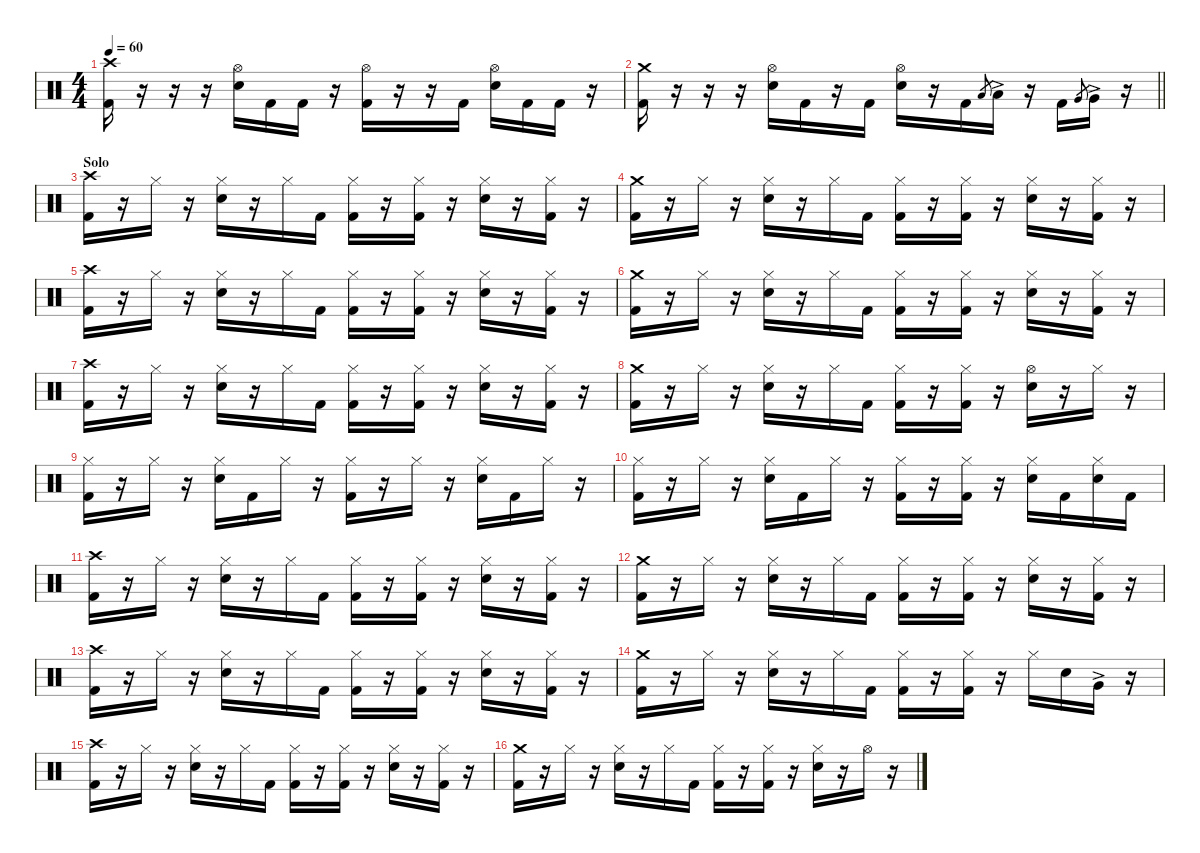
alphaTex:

\defaultSystemsLayout 4
\hideDynamics
\bracketExtendMode nobrackets
\singleTrackTrackNamePolicy hidden
\multiTrackTrackNamePolicy hidden
\firstSystemTrackNameMode fullname
\firstSystemTrackNameOrientation horizontal
\otherSystemsTrackNameOrientation horizontal
\track ("Gene Hoglan" "drm.") {instrument percussion}
\staff {score}
\articulation defaults
\ts (4 4)
\tempo 60
\clef neutral
\ks c
("Crash high (hit)" "Kick (hit) 2").16{dy f beam Down} r.16{beam Down} r.16{beam Down} r.16{beam Down} ("Hi-Hat (open)" "Snare (hit) 2").16{beam Down} "Kick (hit) 2".16{beam Down} "Kick (hit) 2".16{beam Down} r.16{beam Down} ("Hi-Hat (open)" "Kick (hit) 2").16{beam Down} r.16{beam Down} r.16{beam Down} "Kick (hit) 2".16{beam Down} ("Hi-Hat (open)" "Snare (hit) 2").16{beam Down} "Kick (hit) 2".16{beam Down} "Kick (hit) 2".16{beam Down} r.16{beam Down} |
\barLineRight lightlight
("Crash medium (hit)" "Kick (hit) 2").16{beam Down} r.16{beam Down} r.16{beam Down} r.16{beam Down} ("Hi-Hat (open)" "Snare (hit) 2").16{beam Down} "Kick (hit) 2".16{beam Down} r.16{beam Down} "Kick (hit) 2".16{beam Down} ("Hi-Hat (open)" "Snare (hit) 2").16{beam Down} r.16{beam Down} "Kick (hit) 2".16{beam Down} "Low Tom (hit)".8{gr beam Up} "Low Tom (hit)"{ac}.16{dy mf beam Down} r.16{beam Down} "Kick (hit) 2".16{dy f beam Up} "Very Low Tom (hit)".8{gr beam Up} "Very Low Tom (hit)"{ac}.16{dy mf beam Up} r.16{beam Up} |
\section ("" "Solo")
("Crash high (hit)" "Kick (hit) 2").16{dy f beam Down} r.16{beam Down} "Hi-Hat (closed)".16{beam Down} r.16{beam Down} ("Hi-Hat (closed)" "Snare (hit) 2").16{beam Down} r.16{beam Down} "Hi-Hat (closed)".16{beam Down} "Kick (hit) 2".16{beam Down} ("Hi-Hat (closed)" "Kick (hit) 2").16{beam Down} r.16{beam Down} ("Hi-Hat (closed)" "Kick (hit) 2").16{beam Down} r.16{beam Down} ("Hi-Hat (closed)" "Snare (hit) 2").16{beam Down} r.16{beam Down} ("Hi-Hat (closed)" "Kick (hit) 2").16{beam Down} r.16{beam Down} |
("Crash medium (hit)" "Kick (hit) 2").16{beam Down} r.16{beam Down} "Hi-Hat (closed)".16{beam Down} r.16{beam Down} ("Hi-Hat (closed)" "Snare (hit) 2").16{beam Down} r.16{beam Down} "Hi-Hat (closed)".16{beam Down} "Kick (hit) 2".16{beam Down} ("Hi-Hat (closed)" "Kick (hit) 2").16{beam Down} r.16{beam Down} ("Hi-Hat (closed)" "Kick (hit) 2").16{beam Down} r.16{beam Down} ("Hi-Hat (closed)" "Snare (hit) 2").16{beam Down} r.16{beam Down} ("Hi-Hat (closed)" "Kick (hit) 2").16{beam Down} r.16{beam Down} |
("Crash high (hit)" "Kick (hit) 2").16{beam Down} r.16{beam Down} "Hi-Hat (closed)".16{beam Down} r.16{beam Down} ("Hi-Hat (closed)" "Snare (hit) 2").16{beam Down} r.16{beam Down} "Hi-Hat (closed)".16{beam Down} "Kick (hit) 2".16{beam Down} ("Hi-Hat (closed)" "Kick (hit) 2").16{beam Down} r.16{beam Down} ("Hi-Hat (closed)" "Kick (hit) 2").16{beam Down} r.16{beam Down} ("Hi-Hat (closed)" "Snare (hit) 2").16{beam Down} r.16{beam Down} ("Hi-Hat (closed)" "Kick (hit) 2").16{beam Down} r.16{beam Down} |
("Crash medium (hit)" "Kick (hit) 2").16{beam Down} r.16{beam Down} "Hi-Hat (closed)".16{beam Down} r.16{beam Down} ("Hi-Hat (closed)" "Snare (hit) 2").16{beam Down} r.16{beam Down} "Hi-Hat (closed)".16{beam Down} "Kick (hit) 2".16{beam Down} ("Hi-Hat (closed)" "Kick (hit) 2").16{beam Down} r.16{beam Down} ("Hi-Hat (closed)" "Kick (hit) 2").16{beam Down} r.16{beam Down} ("Hi-Hat (closed)" "Snare (hit) 2").16{beam Down} r.16{beam Down} ("Hi-Hat (closed)" "Kick (hit) 2").16{beam Down} r.16{beam Down} |
("Crash high (hit)" "Kick (hit) 2").16{beam Down} r.16{beam Down} "Hi-Hat (closed)".16{beam Down} r.16{beam Down} ("Hi-Hat (closed)" "Snare (hit) 2").16{beam Down} r.16{beam Down} "Hi-Hat (closed)".16{beam Down} "Kick (hit) 2".16{beam Down} ("Hi-Hat (closed)" "Kick (hit) 2").16{beam Down} r.16{beam Down} ("Hi-Hat (closed)" "Kick (hit) 2").16{beam Down} r.16{beam Down} ("Hi-Hat (closed)" "Snare (hit) 2").16{beam Down} r.16{beam Down} ("Hi-Hat (closed)" "Kick (hit) 2").16{beam Down} r.16{beam Down} |
("Crash medium (hit)" "Kick (hit) 2").16{beam Down} r.16{beam Down} "Hi-Hat (closed)".16{beam Down} r.16{beam Down} ("Hi-Hat (closed)" "Snare (hit) 2").16{beam Down} r.16{beam Down} "Hi-Hat (closed)".16{beam Down} "Kick (hit) 2".16{beam Down} ("Hi-Hat (closed)" "Kick (hit) 2").16{beam Down} r.16{beam Down} ("Hi-Hat (closed)" "Kick (hit) 2").16{beam Down} r.16{beam Down} ("Hi-Hat (open)" "Snare (hit) 2").16{beam Down} r.16{beam Down} "Hi-Hat (closed)".16{beam Down} r.16{beam Down} |
("Hi-Hat (closed)" "Kick (hit) 2").16{beam Down} r.16{beam Down} "Hi-Hat (closed)".16{beam Down} r.16{beam Down} ("Hi-Hat (closed)" "Snare (hit) 2").16{beam Down} "Kick (hit) 2".16{beam Down} "Hi-Hat (closed)".16{beam Down} r.16{beam Down} ("Hi-Hat (closed)" "Kick (hit) 2").16{beam Down} r.16{beam Down} "Hi-Hat (closed)".16{beam Down} r.16{beam Down} ("Hi-Hat (closed)" "Snare (hit) 2").16{beam Down} "Kick (hit) 2".16{beam Down} "Hi-Hat (closed)".16{beam Down} r.16{beam Down} |
("Hi-Hat (closed)" "Kick (hit) 2").16{beam Down} r.16{beam Down} "Hi-Hat (closed)".16{beam Down} r.16{beam Down} ("Hi-Hat (closed)" "Snare (hit) 2").16{beam Down} "Kick (hit) 2".16{beam Down} "Hi-Hat (closed)".16{beam Down} r.16{beam Down} ("Hi-Hat (closed)" "Kick (hit) 2").16{beam Down} r.16{beam Down} ("Hi-Hat (closed)" "Kick (hit) 2").16{beam Down} r.16{beam Down} ("Hi-Hat (closed)" "Snare (hit) 2").16{beam Down} "Kick (hit) 2".16{beam Down} ("Hi-Hat (closed)" "Snare (hit) 2").16{beam Down} "Kick (hit) 2".16{beam Down} |
("Crash high (hit)" "Kick (hit) 2").16{beam Down} r.16{beam Down} "Hi-Hat (closed)".16{beam Down} r.16{beam Down} ("Hi-Hat (closed)" "Snare (hit) 2").16{beam Down} r.16{beam Down} "Hi-Hat (closed)".16{beam Down} "Kick (hit) 2".16{beam Down} ("Hi-Hat (closed)" "Kick (hit) 2").16{beam Down} r.16{beam Down} ("Hi-Hat (closed)" "Kick (hit) 2").16{beam Down} r.16{beam Down} ("Hi-Hat (closed)" "Snare (hit) 2").16{beam Down} r.16{beam Down} ("Hi-Hat (closed)" "Kick (hit) 2").16{beam Down} r.16{beam Down} |
("Crash medium (hit)" "Kick (hit) 2").16{beam Down} r.16{beam Down} "Hi-Hat (closed)".16{beam Down} r.16{beam Down} ("Hi-Hat (closed)" "Snare (hit) 2").16{beam Down} r.16{beam Down} "Hi-Hat (closed)".16{beam Down} "Kick (hit) 2".16{beam Down} ("Hi-Hat (closed)" "Kick (hit) 2").16{beam Down} r.16{beam Down} ("Hi-Hat (closed)" "Kick (hit) 2").16{beam Down} r.16{beam Down} ("Hi-Hat (closed)" "Snare (hit) 2").16{beam Down} r.16{beam Down} ("Hi-Hat (closed)" "Kick (hit) 2").16{beam Down} r.16{beam Down} |
("Crash high (hit)" "Kick (hit) 2").16{beam Down} r.16{beam Down} "Hi-Hat (closed)".16{beam Down} r.16{beam Down} ("Hi-Hat (closed)" "Snare (hit) 2").16{beam Down} r.16{beam Down} "Hi-Hat (closed)".16{beam Down} "Kick (hit) 2".16{beam Down} ("Hi-Hat (closed)" "Kick (hit) 2").16{beam Down} r.16{beam Down} ("Hi-Hat (closed)" "Kick (hit) 2").16{beam Down} r.16{beam Down} ("Hi-Hat (closed)" "Snare (hit) 2").16{beam Down} r.16{beam Down} ("Hi-Hat (closed)" "Kick (hit) 2").16{beam Down} r.16{beam Down} |
("Crash medium (hit)" "Kick (hit) 2").16{beam Down} r.16{beam Down} "Hi-Hat (closed)".16{beam Down} r.16{beam Down} ("Hi-Hat (closed)" "Snare (hit) 2").16{beam Down} r.16{beam Down} "Hi-Hat (closed)".16{beam Down} "Kick (hit) 2".16{beam Down} ("Hi-Hat (closed)" "Kick (hit) 2").16{beam Down} r.16{beam Down} ("Hi-Hat (closed)" "Kick (hit) 2").16{beam Down} r.16{beam Down} "Hi-Hat (closed)".16{beam Down} "Snare (hit) 2".16{beam Down} "Very Low Tom (hit)"{ac}.16{dy mf beam Down} r.16{beam Down} |
("Crash high (hit)" "Kick (hit) 2").16{dy f beam Down} r.16{beam Down} "Hi-Hat (closed)".16{beam Down} r.16{beam Down} ("Hi-Hat (closed)" "Snare (hit) 2").16{beam Down} r.16{beam Down} "Hi-Hat (closed)".16{beam Down} "Kick (hit) 2".16{beam Down} ("Hi-Hat (closed)" "Kick (hit) 2").16{beam Down} r.16{beam Down} ("Hi-Hat (closed)" "Kick (hit) 2").16{beam Down} r.16{beam Down} ("Hi-Hat (closed)" "Snare (hit) 2").16{beam Down} r.16{beam Down} ("Hi-Hat (closed)" "Kick (hit) 2").16{beam Down} r.16{beam Down} |
("Crash medium (hit)" "Kick (hit) 2").16{beam Down} r.16{beam Down} "Hi-Hat (closed)".16{beam Down} r.16{beam Down} ("Hi-Hat (closed)" "Snare (hit) 2").16{beam Down} r.16{beam Down} "Hi-Hat (closed)".16{beam Down} "Kick (hit) 2".16{beam Down} ("Hi-Hat (closed)" "Kick (hit) 2").16{beam Down} r.16{beam Down} ("Hi-Hat (closed)" "Kick (hit) 2").16{beam Down} r.16{beam Down} ("Hi-Hat (closed)" "Snare (hit) 2").16{beam Down} r.16{beam Down} "Hi-Hat (open)".16{beam Down} r.16{beam Down}
